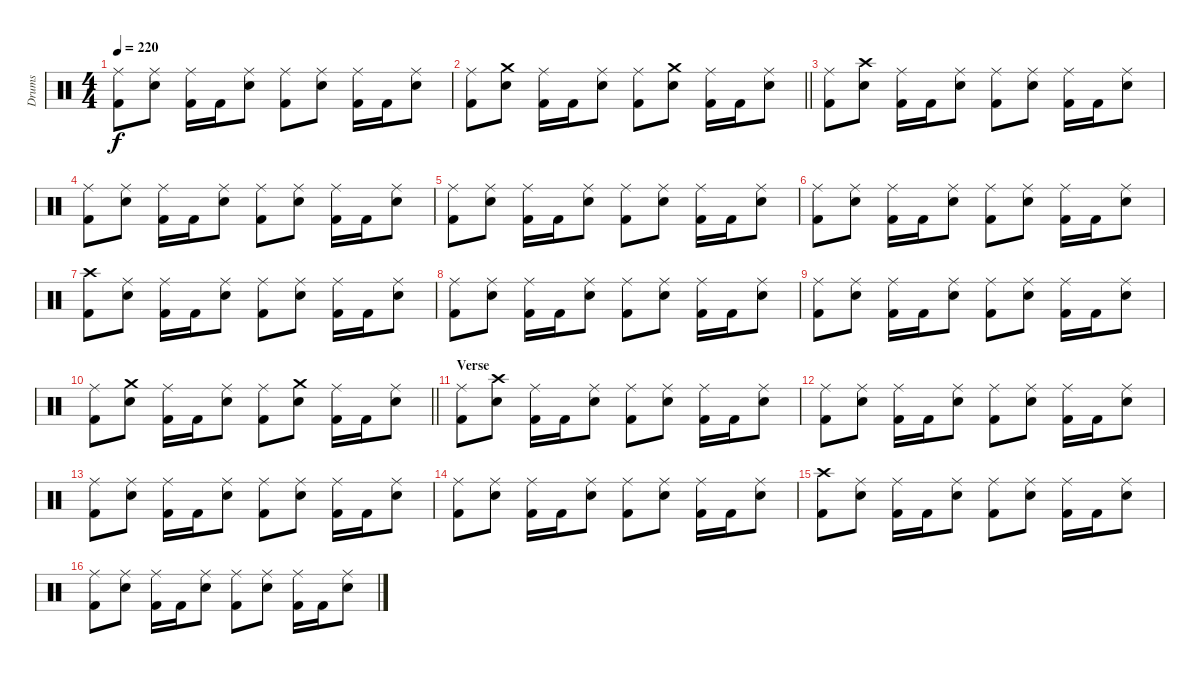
\track ("Drums" "Drums") {instrument percussion}
\staff {score}
\articulation defaults
\ts (4 4)
\tempo 220
\clef neutral
\ks c
("Ride (middle)" "Kick (hit) 2").8{dy f} ("Ride (middle)" "Snare (hit) 2").8 ("Ride (middle)" "Kick (hit) 2").16 "Kick (hit) 2".16 ("Ride (middle)" "Snare (hit) 2").8 ("Ride (middle)" "Kick (hit) 2").8 ("Ride (middle)" "Snare (hit) 2").8 ("Ride (middle)" "Kick (hit) 2").16 "Kick (hit) 2".16 ("Ride (middle)" "Snare (hit) 2").8 |
\barLineRight lightlight
("Ride (middle)" "Kick (hit) 2").8 ("Crash medium (hit)" "Snare (hit) 2").8 ("Ride (middle)" "Kick (hit) 2").16 "Kick (hit) 2".16 ("Ride (middle)" "Snare (hit) 2").8 ("Ride (middle)" "Kick (hit) 2").8 ("Crash medium (hit)" "Snare (hit) 2").8 ("Ride (middle)" "Kick (hit) 2").16 "Kick (hit) 2".16 ("Ride (middle)" "Snare (hit) 2").8 |
("Ride (middle)" "Kick (hit) 2").8 ("Crash high (hit)" "Snare (hit) 2").8 ("Ride (middle)" "Kick (hit) 2").16 "Kick (hit) 2".16 ("Ride (middle)" "Snare (hit) 2").8 ("Ride (middle)" "Kick (hit) 2").8 ("Ride (middle)" "Snare (hit) 2").8 ("Ride (middle)" "Kick (hit) 2").16 "Kick (hit) 2".16 ("Ride (middle)" "Snare (hit) 2").8 |
("Ride (middle)" "Kick (hit) 2").8 ("Ride (middle)" "Snare (hit) 2").8 ("Ride (middle)" "Kick (hit) 2").16 "Kick (hit) 2".16 ("Ride (middle)" "Snare (hit) 2").8 ("Ride (middle)" "Kick (hit) 2").8 ("Ride (middle)" "Snare (hit) 2").8 ("Ride (middle)" "Kick (hit) 2").16 "Kick (hit) 2".16 ("Ride (middle)" "Snare (hit) 2").8 |
("Ride (middle)" "Kick (hit) 2").8 ("Ride (middle)" "Snare (hit) 2").8 ("Ride (middle)" "Kick (hit) 2").16 "Kick (hit) 2".16 ("Ride (middle)" "Snare (hit) 2").8 ("Ride (middle)" "Kick (hit) 2").8 ("Ride (middle)" "Snare (hit) 2").8 ("Ride (middle)" "Kick (hit) 2").16 "Kick (hit) 2".16 ("Ride (middle)" "Snare (hit) 2").8 |
("Ride (middle)" "Kick (hit) 2").8 ("Ride (middle)" "Snare (hit) 2").8 ("Ride (middle)" "Kick (hit) 2").16 "Kick (hit) 2".16 ("Ride (middle)" "Snare (hit) 2").8 ("Ride (middle)" "Kick (hit) 2").8 ("Ride (middle)" "Snare (hit) 2").8 ("Ride (middle)" "Kick (hit) 2").16 "Kick (hit) 2".16 ("Ride (middle)" "Snare (hit) 2").8 |
("Crash high (hit)" "Kick (hit) 2").8 ("Ride (middle)" "Snare (hit) 2").8 ("Ride (middle)" "Kick (hit) 2").16 "Kick (hit) 2".16 ("Ride (middle)" "Snare (hit) 2").8 ("Ride (middle)" "Kick (hit) 2").8 ("Ride (middle)" "Snare (hit) 2").8 ("Ride (middle)" "Kick (hit) 2").16 "Kick (hit) 2".16 ("Ride (middle)" "Snare (hit) 2").8 |
("Ride (middle)" "Kick (hit) 2").8 ("Ride (middle)" "Snare (hit) 2").8 ("Ride (middle)" "Kick (hit) 2").16 "Kick (hit) 2".16 ("Ride (middle)" "Snare (hit) 2").8 ("Ride (middle)" "Kick (hit) 2").8 ("Ride (middle)" "Snare (hit) 2").8 ("Ride (middle)" "Kick (hit) 2").16 "Kick (hit) 2".16 ("Ride (middle)" "Snare (hit) 2").8 |
("Ride (middle)" "Kick (hit) 2").8 ("Ride (middle)" "Snare (hit) 2").8 ("Ride (middle)" "Kick (hit) 2").16 "Kick (hit) 2".16 ("Ride (middle)" "Snare (hit) 2").8 ("Ride (middle)" "Kick (hit) 2").8 ("Ride (middle)" "Snare (hit) 2").8 ("Ride (middle)" "Kick (hit) 2").16 "Kick (hit) 2".16 ("Ride (middle)" "Snare (hit) 2").8 |
\barLineRight lightlight
("Ride (middle)" "Kick (hit) 2").8 ("Crash medium (hit)" "Snare (hit) 2").8 ("Ride (middle)" "Kick (hit) 2").16 "Kick (hit) 2".16 ("Ride (middle)" "Snare (hit) 2").8 ("Ride (middle)" "Kick (hit) 2").8 ("Crash medium (hit)" "Snare (hit) 2").8 ("Ride (middle)" "Kick (hit) 2").16 "Kick (hit) 2".16 ("Ride (middle)" "Snare (hit) 2").8 |
\section ("" "Verse")
("Ride (middle)" "Kick (hit) 2").8 ("Crash high (hit)" "Snare (hit) 2").8 ("Ride (middle)" "Kick (hit) 2").16 "Kick (hit) 2".16 ("Ride (middle)" "Snare (hit) 2").8 ("Ride (middle)" "Kick (hit) 2").8 ("Ride (middle)" "Snare (hit) 2").8 ("Ride (middle)" "Kick (hit) 2").16 "Kick (hit) 2".16 ("Ride (middle)" "Snare (hit) 2").8 |
("Ride (middle)" "Kick (hit) 2").8 ("Ride (middle)" "Snare (hit) 2").8 ("Ride (middle)" "Kick (hit) 2").16 "Kick (hit) 2".16 ("Ride (middle)" "Snare (hit) 2").8 ("Ride (middle)" "Kick (hit) 2").8 ("Ride (middle)" "Snare (hit) 2").8 ("Ride (middle)" "Kick (hit) 2").16 "Kick (hit) 2".16 ("Ride (middle)" "Snare (hit) 2").8 |
("Ride (middle)" "Kick (hit) 2").8 ("Ride (middle)" "Snare (hit) 2").8 ("Ride (middle)" "Kick (hit) 2").16 "Kick (hit) 2".16 ("Ride (middle)" "Snare (hit) 2").8 ("Ride (middle)" "Kick (hit) 2").8 ("Ride (middle)" "Snare (hit) 2").8 ("Ride (middle)" "Kick (hit) 2").16 "Kick (hit) 2".16 ("Ride (middle)" "Snare (hit) 2").8 |
("Ride (middle)" "Kick (hit) 2").8 ("Ride (middle)" "Snare (hit) 2").8 ("Ride (middle)" "Kick (hit) 2").16 "Kick (hit) 2".16 ("Ride (middle)" "Snare (hit) 2").8 ("Ride (middle)" "Kick (hit) 2").8 ("Ride (middle)" "Snare (hit) 2").8 ("Ride (middle)" "Kick (hit) 2").16 "Kick (hit) 2".16 ("Ride (middle)" "Snare (hit) 2").8 |
("Crash high (hit)" "Kick (hit) 2").8 ("Ride (middle)" "Snare (hit) 2").8 ("Ride (middle)" "Kick (hit) 2").16 "Kick (hit) 2".16 ("Ride (middle)" "Snare (hit) 2").8 ("Ride (middle)" "Kick (hit) 2").8 ("Ride (middle)" "Snare (hit) 2").8 ("Ride (middle)" "Kick (hit) 2").16 "Kick (hit) 2".16 ("Ride (middle)" "Snare (hit) 2").8 |
("Ride (middle)" "Kick (hit) 2").8 ("Ride (middle)" "Snare (hit) 2").8 ("Ride (middle)" "Kick (hit) 2").16 "Kick (hit) 2".16 ("Ride (middle)" "Snare (hit) 2").8 ("Ride (middle)" "Kick (hit) 2").8 ("Ride (middle)" "Snare (hit) 2").8 ("Ride (middle)" "Kick (hit) 2").16 "Kick (hit) 2".16 ("Ride (middle)" "Snare (hit) 2").8
